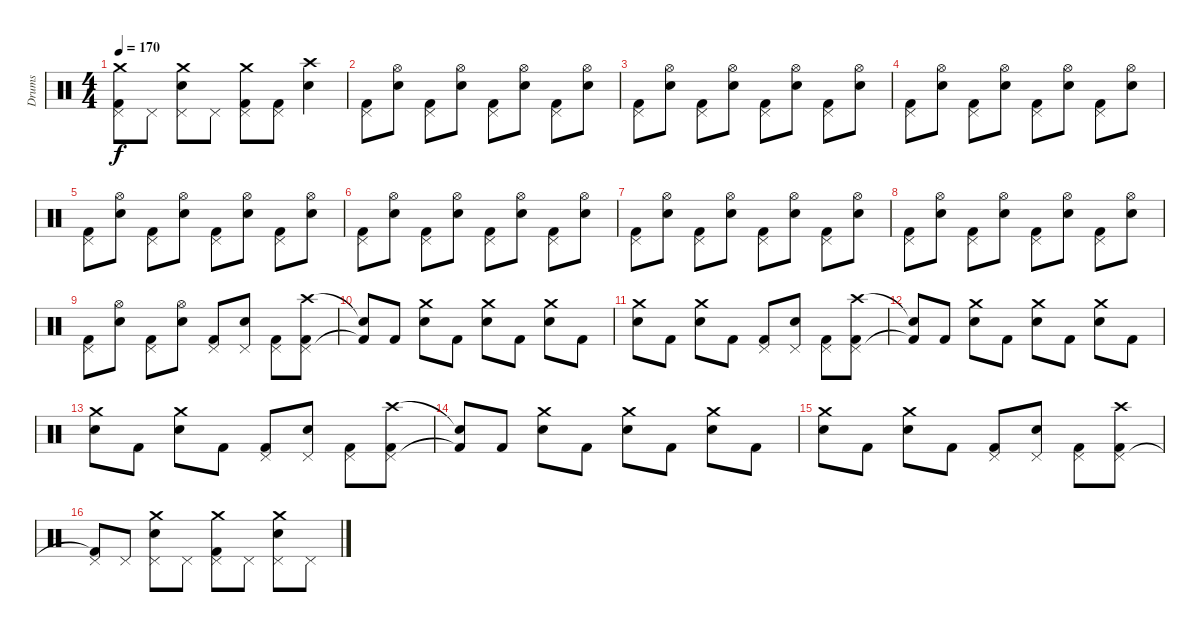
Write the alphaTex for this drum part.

\track ("Drums" "Drums") {instrument percussion}
\staff {score}
\articulation defaults
\ts (4 4)
\tempo 170
\clef neutral
\ks c
("Crash medium (hit)" "Pedal Hi-Hat (hit)" "Kick (hit) 2").8{dy f} "Pedal Hi-Hat (hit)".8 ("Crash medium (hit)" "Pedal Hi-Hat (hit)" "Snare (hit) 2").8 "Pedal Hi-Hat (hit)".8 ("Crash medium (hit)" "Pedal Hi-Hat (hit)" "Kick (hit) 2").8 ("Pedal Hi-Hat (hit)" "Kick (hit) 2").8 ("Crash high (hit)" "Snare (hit) 2").4 |
("Pedal Hi-Hat (hit)" "Kick (hit) 2").8 ("Hi-Hat (open)" "Electric Snare (hit)").8 ("Pedal Hi-Hat (hit)" "Kick (hit) 2").8 ("Hi-Hat (open)" "Electric Snare (hit)").8 ("Pedal Hi-Hat (hit)" "Kick (hit) 2").8 ("Hi-Hat (open)" "Electric Snare (hit)").8 ("Pedal Hi-Hat (hit)" "Kick (hit) 2").8 ("Hi-Hat (open)" "Electric Snare (hit)").8 |
("Pedal Hi-Hat (hit)" "Kick (hit) 2").8 ("Hi-Hat (open)" "Electric Snare (hit)").8 ("Pedal Hi-Hat (hit)" "Kick (hit) 2").8 ("Hi-Hat (open)" "Electric Snare (hit)").8 ("Pedal Hi-Hat (hit)" "Kick (hit) 2").8 ("Hi-Hat (open)" "Electric Snare (hit)").8 ("Pedal Hi-Hat (hit)" "Kick (hit) 2").8 ("Hi-Hat (open)" "Electric Snare (hit)").8 |
("Pedal Hi-Hat (hit)" "Kick (hit) 2").8 ("Hi-Hat (open)" "Electric Snare (hit)").8 ("Pedal Hi-Hat (hit)" "Kick (hit) 2").8 ("Hi-Hat (open)" "Electric Snare (hit)").8 ("Pedal Hi-Hat (hit)" "Kick (hit) 2").8 ("Hi-Hat (open)" "Electric Snare (hit)").8 ("Pedal Hi-Hat (hit)" "Kick (hit) 2").8 ("Hi-Hat (open)" "Electric Snare (hit)").8 |
("Pedal Hi-Hat (hit)" "Kick (hit) 2").8 ("Hi-Hat (open)" "Electric Snare (hit)").8 ("Pedal Hi-Hat (hit)" "Kick (hit) 2").8 ("Hi-Hat (open)" "Electric Snare (hit)").8 ("Pedal Hi-Hat (hit)" "Kick (hit) 2").8 ("Hi-Hat (open)" "Electric Snare (hit)").8 ("Pedal Hi-Hat (hit)" "Kick (hit) 2").8 ("Hi-Hat (open)" "Electric Snare (hit)").8 |
("Pedal Hi-Hat (hit)" "Kick (hit) 2").8 ("Hi-Hat (open)" "Electric Snare (hit)").8 ("Pedal Hi-Hat (hit)" "Kick (hit) 2").8 ("Hi-Hat (open)" "Electric Snare (hit)").8 ("Pedal Hi-Hat (hit)" "Kick (hit) 2").8 ("Hi-Hat (open)" "Electric Snare (hit)").8 ("Pedal Hi-Hat (hit)" "Kick (hit) 2").8 ("Hi-Hat (open)" "Electric Snare (hit)").8 |
("Pedal Hi-Hat (hit)" "Kick (hit) 2").8 ("Hi-Hat (open)" "Electric Snare (hit)").8 ("Pedal Hi-Hat (hit)" "Kick (hit) 2").8 ("Hi-Hat (open)" "Electric Snare (hit)").8 ("Pedal Hi-Hat (hit)" "Kick (hit) 2").8 ("Hi-Hat (open)" "Electric Snare (hit)").8 ("Pedal Hi-Hat (hit)" "Kick (hit) 2").8 ("Hi-Hat (open)" "Electric Snare (hit)").8 |
("Pedal Hi-Hat (hit)" "Kick (hit) 2").8 ("Hi-Hat (open)" "Electric Snare (hit)").8 ("Pedal Hi-Hat (hit)" "Kick (hit) 2").8 ("Hi-Hat (open)" "Electric Snare (hit)").8 ("Pedal Hi-Hat (hit)" "Kick (hit) 2").8 ("Hi-Hat (open)" "Electric Snare (hit)").8 ("Pedal Hi-Hat (hit)" "Kick (hit) 2").8 ("Hi-Hat (open)" "Electric Snare (hit)").8 |
("Pedal Hi-Hat (hit)" "Kick (hit) 2").8 ("Hi-Hat (open)" "Electric Snare (hit)").8 ("Pedal Hi-Hat (hit)" "Kick (hit) 2").8 ("Hi-Hat (open)" "Electric Snare (hit)").8 ("Pedal Hi-Hat (hit)" "Kick (hit) 2").8 ("Pedal Hi-Hat (hit)" "Electric Snare (hit)").8 ("Pedal Hi-Hat (hit)" "Kick (hit) 2").8 ("Crash high (hit)" "Pedal Hi-Hat (hit)" "Kick (hit) 2").8 |
("Snare (hit)"{t} "Kick (hit) 2"{t}).8 "Kick (hit) 2".8 ("Crash medium (hit)" "Snare (hit) 2").8 "Kick (hit) 2".8 ("Crash medium (hit)" "Snare (hit) 2").8 "Kick (hit) 2".8 ("Crash medium (hit)" "Snare (hit) 2").8 "Kick (hit) 2".8 |
("Crash medium (hit)" "Snare (hit) 2").8 "Kick (hit) 2".8 ("Crash medium (hit)" "Snare (hit) 2").8 "Kick (hit) 2".8 ("Pedal Hi-Hat (hit)" "Kick (hit) 2").8 ("Pedal Hi-Hat (hit)" "Electric Snare (hit)").8 ("Pedal Hi-Hat (hit)" "Kick (hit) 2").8 ("Crash high (hit)" "Pedal Hi-Hat (hit)" "Kick (hit) 2").8 |
("Snare (hit)"{t} "Kick (hit) 2"{t}).8 "Kick (hit) 2".8 ("Crash medium (hit)" "Snare (hit) 2").8 "Kick (hit) 2".8 ("Crash medium (hit)" "Snare (hit) 2").8 "Kick (hit) 2".8 ("Crash medium (hit)" "Snare (hit) 2").8 "Kick (hit) 2".8 |
("Crash medium (hit)" "Snare (hit) 2").8 "Kick (hit) 2".8 ("Crash medium (hit)" "Snare (hit) 2").8 "Kick (hit) 2".8 ("Pedal Hi-Hat (hit)" "Kick (hit) 2").8 ("Pedal Hi-Hat (hit)" "Electric Snare (hit)").8 ("Pedal Hi-Hat (hit)" "Kick (hit) 2").8 ("Crash high (hit)" "Pedal Hi-Hat (hit)" "Kick (hit) 2").8 |
("Snare (hit)"{t} "Kick (hit) 2"{t}).8 "Kick (hit) 2".8 ("Crash medium (hit)" "Snare (hit) 2").8 "Kick (hit) 2".8 ("Crash medium (hit)" "Snare (hit) 2").8 "Kick (hit) 2".8 ("Crash medium (hit)" "Snare (hit) 2").8 "Kick (hit) 2".8 |
("Crash medium (hit)" "Snare (hit) 2").8 "Kick (hit) 2".8 ("Crash medium (hit)" "Snare (hit) 2").8 "Kick (hit) 2".8 ("Pedal Hi-Hat (hit)" "Kick (hit) 2").8 ("Pedal Hi-Hat (hit)" "Electric Snare (hit)").8 ("Pedal Hi-Hat (hit)" "Kick (hit) 2").8 ("Crash high (hit)" "Pedal Hi-Hat (hit)" "Kick (hit) 2").8 |
("Pedal Hi-Hat (hit)" "Kick (hit) 2"{t}).8 "Pedal Hi-Hat (hit)".8 ("Crash medium (hit)" "Pedal Hi-Hat (hit)" "Snare (hit) 2").8 "Pedal Hi-Hat (hit)".8 ("Crash medium (hit)" "Pedal Hi-Hat (hit)" "Kick (hit) 2").8 "Pedal Hi-Hat (hit)".8 ("Crash medium (hit)" "Pedal Hi-Hat (hit)" "Snare (hit) 2").8 "Pedal Hi-Hat (hit)".8
